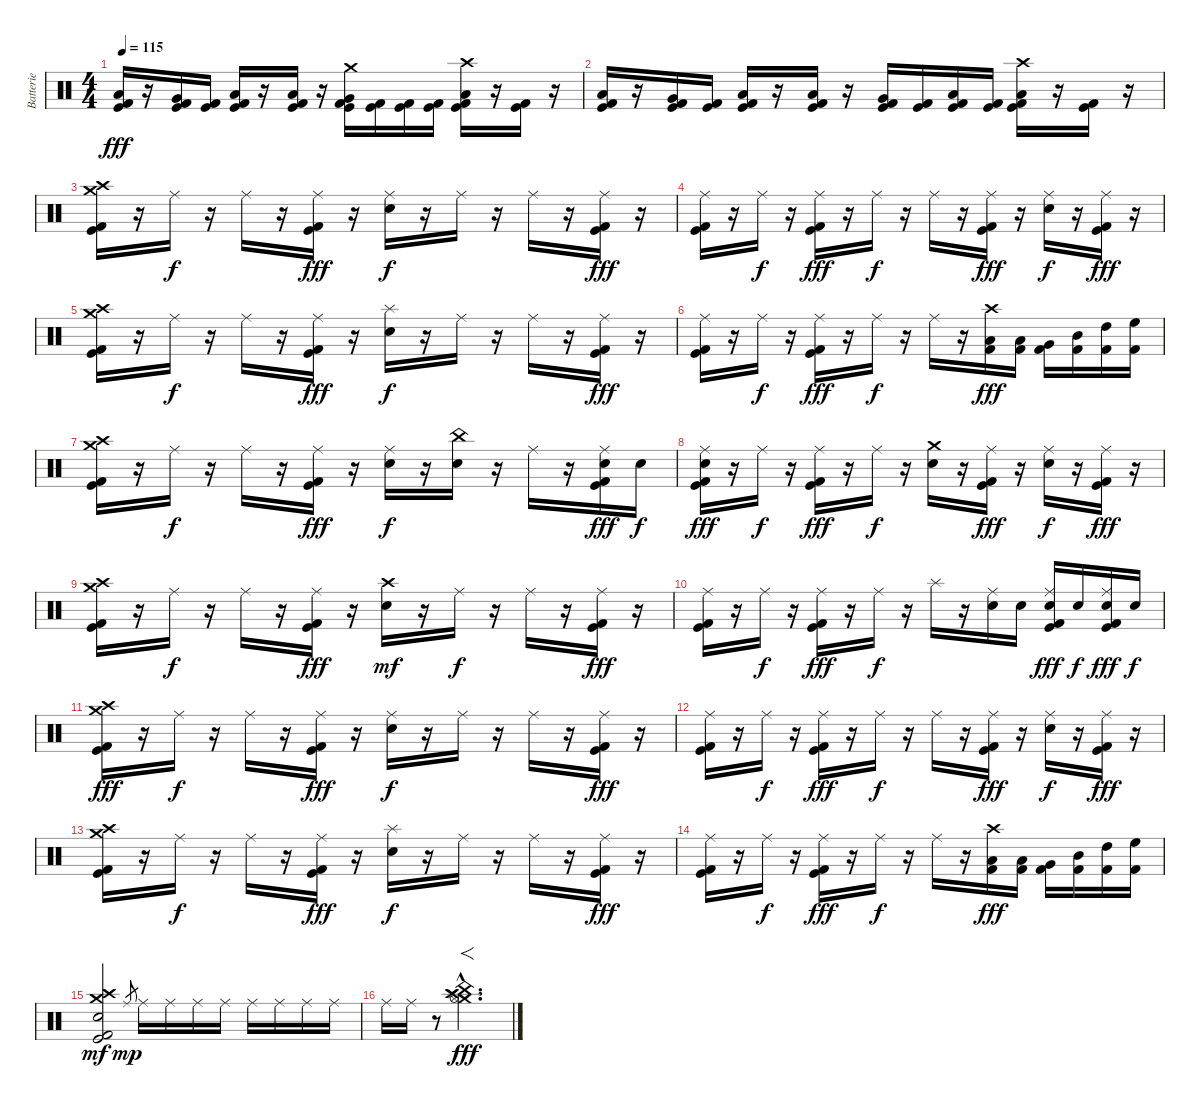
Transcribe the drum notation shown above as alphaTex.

\track ("Batterie" "Batterie") {instrument percussion}
\staff {score}
\articulation defaults
\ts (4 4)
\tempo 115
\clef neutral
\ks c
("Low Floor Tom (hit)" "Kick (hit) 2" "Kick (hit)").16{dy fff} r.16 ("Very Low Tom (hit)" "Kick (hit) 2" "Kick (hit)").16 ("Kick (hit) 2" "Kick (hit)").16 ("Low Floor Tom (hit)" "Kick (hit) 2" "Kick (hit)").16 r.16 ("Low Floor Tom (hit)" "Kick (hit) 2" "Kick (hit)").16 r.16 ("Crash medium (hit)" "Very Low Tom (hit)" "Kick (hit) 2" "Kick (hit)").16 ("Kick (hit) 2" "Kick (hit)").16 ("Kick (hit) 2" "Kick (hit)").16 ("Kick (hit) 2" "Kick (hit)").16 ("Crash high (hit)" "Low Floor Tom (hit)" "Kick (hit) 2" "Kick (hit)").16 r.16 ("Kick (hit) 2" "Kick (hit)").16 r.16 |
("Low Floor Tom (hit)" "Kick (hit) 2" "Kick (hit)").16 r.16 ("Very Low Tom (hit)" "Kick (hit) 2" "Kick (hit)").16 ("Kick (hit) 2" "Kick (hit)").16 ("Low Floor Tom (hit)" "Kick (hit) 2" "Kick (hit)").16 r.16 ("Low Floor Tom (hit)" "Kick (hit) 2" "Kick (hit)").16 r.16 ("Very Low Tom (hit)" "Kick (hit) 2" "Kick (hit)").16 ("Kick (hit) 2" "Kick (hit)").16 ("Low Tom (hit)" "Kick (hit) 2" "Kick (hit)").16 ("Kick (hit) 2" "Kick (hit)").16 ("Crash high (hit)" "Low Floor Tom (hit)" "Kick (hit) 2" "Kick (hit)").16 r.16 ("Kick (hit) 2" "Kick (hit)").16 r.16 |
("Crash medium (hit)" "Crash high (hit)" "Kick (hit) 2" "Kick (hit)").16 r.16 "Ride (middle)".16{dy f} r.16 "Ride (middle)".16 r.16 ("Ride (middle)" "Kick (hit) 2" "Kick (hit)").16{dy fff} r.16 ("Ride (middle)" "Electric Snare (hit)").16{dy f} r.16 "Ride (middle)".16 r.16 "Ride (middle)".16 r.16 ("Ride (middle)" "Kick (hit)" "Kick (hit) 2").16{dy fff} r.16 |
("Ride (middle)" "Kick (hit)" "Kick (hit) 2").16 r.16 "Ride (middle)".16{dy f} r.16 ("Ride (middle)" "Kick (hit)" "Kick (hit) 2").16{dy fff} r.16 "Ride (middle)".16{dy f} r.16 "Ride (middle)".16 r.16 ("Ride (middle)" "Kick (hit)" "Kick (hit) 2").16{dy fff} r.16 ("Ride (middle)" "Electric Snare (hit)").16{dy f} r.16 ("Ride (middle)" "Kick (hit)" "Kick (hit) 2").16{dy fff} r.16 |
("Crash medium (hit)" "Crash high (hit)" "Kick (hit) 2" "Kick (hit)").16 r.16 "Ride (middle)".16{dy f} r.16 "Ride (middle)".16 r.16 ("Ride (middle)" "Kick (hit) 2" "Kick (hit)").16{dy fff} r.16 ("Splash (hit)" "Electric Snare (hit)").16{dy f} r.16 "Ride (middle)".16 r.16 "Ride (middle)".16 r.16 ("Ride (middle)" "Kick (hit)" "Kick (hit) 2").16{dy fff} r.16 |
("Ride (middle)" "Kick (hit)" "Kick (hit) 2").16 r.16 "Ride (middle)".16{dy f} r.16 ("Ride (middle)" "Kick (hit)" "Kick (hit) 2").16{dy fff} r.16 "Ride (middle)".16{dy f} r.16 "Ride (middle)".16 r.16 ("Crash high (hit)" "Low Floor Tom (hit)" "Kick (hit) 2").16{dy fff} ("Low Tom (hit)" "Kick (hit) 2").16 ("Very Low Tom (hit)" "Kick (hit) 2").16 ("Mid Tom (hit)" "Kick (hit) 2").16 ("High Tom (hit)" "Kick (hit) 2").16 ("High Floor Tom (hit)" "Kick (hit) 2").16 |
("Crash medium (hit)" "Crash high (hit)" "Kick (hit) 2" "Kick (hit)").16 r.16 "Ride (middle)".16{dy f} r.16 "Ride (middle)".16 r.16 ("Ride (middle)" "Kick (hit) 2" "Kick (hit)").16{dy fff} r.16 ("Ride (middle)" "Electric Snare (hit)").16{dy f} r.16 ("China (hit)" "Electric Snare (hit)").16 r.16 "Ride (middle)".16 r.16 ("Ride (middle)" "Electric Snare (hit)" "Kick (hit)" "Kick (hit) 2").16{dy fff} "Electric Snare (hit)".16{dy f} |
("Ride (middle)" "Electric Snare (hit)" "Kick (hit)" "Kick (hit) 2").16{dy fff} r.16 "Ride (middle)".16{dy f} r.16 ("Ride (middle)" "Kick (hit)" "Kick (hit) 2").16{dy fff} r.16 "Ride (middle)".16{dy f} r.16 ("Crash medium (hit)" "Electric Snare (hit)").16 r.16 ("Ride (middle)" "Kick (hit)" "Kick (hit) 2").16{dy fff} r.16 ("Ride (middle)" "Electric Snare (hit)").16{dy f} r.16 ("Ride (middle)" "Kick (hit)" "Kick (hit) 2").16{dy fff} r.16 |
("Crash medium (hit)" "Crash high (hit)" "Kick (hit) 2" "Kick (hit)").16 r.16 "Ride (middle)".16{dy f} r.16 "Ride (middle)".16 r.16 ("Ride (middle)" "Kick (hit) 2" "Kick (hit)").16{dy fff} r.16 ("Crash high (hit)" "Electric Snare (hit)").16{dy mf} r.16 "Ride (middle)".16{dy f} r.16 "Ride (middle)".16 r.16 ("Ride (middle)" "Kick (hit)" "Kick (hit) 2").16{dy fff} r.16 |
("Ride (middle)" "Kick (hit)" "Kick (hit) 2").16 r.16 "Ride (middle)".16{dy f} r.16 ("Ride (middle)" "Kick (hit)" "Kick (hit) 2").16{dy fff} r.16 "Ride (middle)".16{dy f} r.16 "Splash (hit)".16 r.16 ("Ride (middle)" "Electric Snare (hit)").16 "Electric Snare (hit)".16 ("Ride (middle)" "Electric Snare (hit)" "Kick (hit)" "Kick (hit) 2").16{dy fff} "Electric Snare (hit)".16{dy f} ("Ride (middle)" "Electric Snare (hit)" "Kick (hit)" "Kick (hit) 2").16{dy fff} "Electric Snare (hit)".16{dy f} |
("Crash medium (hit)" "Crash high (hit)" "Kick (hit) 2" "Kick (hit)").16{dy fff} r.16 "Ride (middle)".16{dy f} r.16 "Ride (middle)".16 r.16 ("Ride (middle)" "Kick (hit) 2" "Kick (hit)").16{dy fff} r.16 ("Ride (middle)" "Electric Snare (hit)").16{dy f} r.16 "Ride (middle)".16 r.16 "Ride (middle)".16 r.16 ("Ride (middle)" "Kick (hit)" "Kick (hit) 2").16{dy fff} r.16 |
("Ride (middle)" "Kick (hit)" "Kick (hit) 2").16 r.16 "Ride (middle)".16{dy f} r.16 ("Ride (middle)" "Kick (hit)" "Kick (hit) 2").16{dy fff} r.16 "Ride (middle)".16{dy f} r.16 "Ride (middle)".16 r.16 ("Ride (middle)" "Kick (hit)" "Kick (hit) 2").16{dy fff} r.16 ("Ride (middle)" "Electric Snare (hit)").16{dy f} r.16 ("Ride (middle)" "Kick (hit)" "Kick (hit) 2").16{dy fff} r.16 |
("Crash medium (hit)" "Crash high (hit)" "Kick (hit) 2" "Kick (hit)").16 r.16 "Ride (middle)".16{dy f} r.16 "Ride (middle)".16 r.16 ("Ride (middle)" "Kick (hit) 2" "Kick (hit)").16{dy fff} r.16 ("Splash (hit)" "Electric Snare (hit)").16{dy f} r.16 "Ride (middle)".16 r.16 "Ride (middle)".16 r.16 ("Ride (middle)" "Kick (hit)" "Kick (hit) 2").16{dy fff} r.16 |
("Ride (middle)" "Kick (hit)" "Kick (hit) 2").16 r.16 "Ride (middle)".16{dy f} r.16 ("Ride (middle)" "Kick (hit)" "Kick (hit) 2").16{dy fff} r.16 "Ride (middle)".16{dy f} r.16 "Ride (middle)".16 r.16 ("Crash high (hit)" "Low Floor Tom (hit)" "Kick (hit) 2").16{dy fff} ("Low Tom (hit)" "Kick (hit) 2").16 ("Very Low Tom (hit)" "Kick (hit) 2").16 ("Mid Tom (hit)" "Kick (hit) 2").16 ("High Tom (hit)" "Kick (hit) 2").16 ("High Floor Tom (hit)" "Kick (hit) 2").16 |
("Crash medium (hit)" "Crash high (hit)" "Electric Snare (hit)" "Kick (hit)" "Kick (hit) 2").2{dy mf} "Ride (middle)".8{gr dy mp} "Ride (middle)".16 "Ride (middle)".16 "Ride (middle)".16 "Ride (middle)".16 "Ride (middle)".16 "Ride (middle)".16 "Ride (middle)".16 "Ride (middle)".16 |
"Ride (middle)".16 "Ride (middle)".16 r.8 ("Crash medium (hit)"{hac} "Crash high (hit)"{hac} "Splash (hit)"{hac} "China (hit)"{hac} "Hi-Hat (open)"{hac}).2{f d dy fff}
